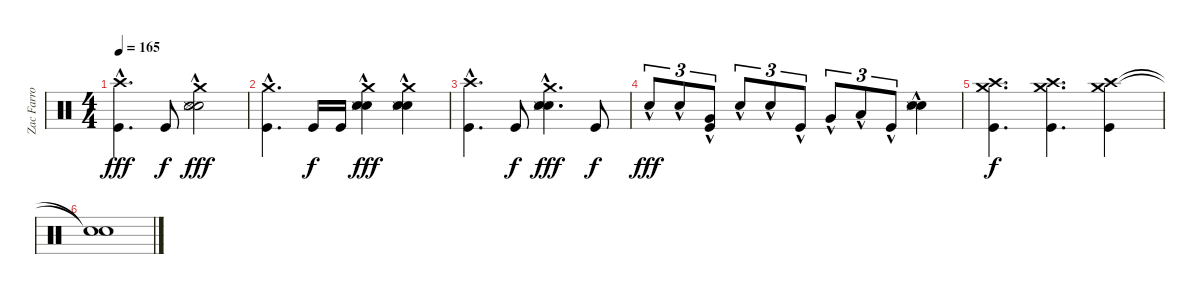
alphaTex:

\track ("Zac Farro (Drums)" "Zac Farro ") {instrument percussion}
\staff {score}
\articulation defaults
\ts (4 4)
\tempo 165
\clef neutral
\ks c
("Crash high (hit)"{hac} "Kick (hit)"{hac}).4{d dy fff} "Kick (hit)".8{dy f} ("Crash medium (hit)"{hac} "Snare (hit) 2"{hac} "Snare (side stick) 3"{hac} "Electric Snare (hit)"{hac}).2{dy fff} |
("Crash medium (hit)"{hac} "Kick (hit)"{hac}).4{d} "Kick (hit)".16{dy f} "Kick (hit)".16 ("Crash medium (hit)"{hac} "Snare (hit) 2"{hac} "Snare (side stick) 3"{hac} "Electric Snare (hit)"{hac}).4{dy fff} ("Crash medium (hit)"{hac} "Snare (hit) 2"{hac} "Snare (side stick) 3"{hac} "Electric Snare (hit)"{hac}).4 |
("Crash high (hit)"{hac} "Kick (hit)"{hac}).4{d} "Kick (hit)".8{dy f} ("Crash medium (hit)"{hac} "Snare (hit) 2"{hac} "Snare (side stick) 3"{hac} "Electric Snare (hit)"{hac}).4{d dy fff} "Kick (hit)".8{dy f} |
"Electric Snare (hit)"{hac}.8{tu (3 2) dy fff} "Electric Snare (hit)"{hac}.8{tu (3 2)} ("Very Low Tom (hit)"{hac} "Kick (hit)"{hac}).8{tu (3 2)} "Electric Snare (hit)"{hac}.8{tu (3 2)} "Electric Snare (hit)"{hac}.8{tu (3 2)} "Kick (hit)"{hac}.8{tu (3 2)} "Very Low Tom (hit)"{hac}.8{tu (3 2)} "Low Floor Tom (hit)"{hac}.8{tu (3 2)} "Kick (hit)"{hac}.8{tu (3 2)} ("Snare (hit) 2"{hac} "Snare (side stick) 3"{hac} "Electric Snare (hit)"{hac}).4 |
("Crash high (hit)" "Crash medium (hit)" "Kick (hit)").4{d dy f} ("Crash high (hit)" "Crash medium (hit)" "Kick (hit)").4{d} ("Crash high (hit)" "Crash medium (hit)" "Kick (hit)").4 |
("Snare (hit)"{t} "Snare (hit)"{t}).1
